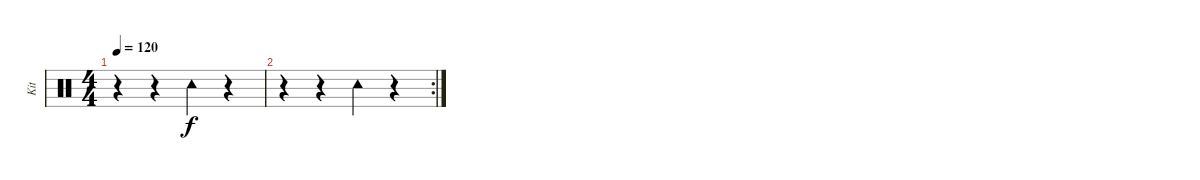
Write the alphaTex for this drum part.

\track ("Kit" "Kit") {instrument percussion}
\staff {score}
\articulation defaults
\ts (4 4)
\tempo 120
\clef neutral
\ks c
r.4{dy f} r.4 "Tambourine (hit)".4 r.4 |
\rc 2
r.4 r.4 "Tambourine (hit)".4 r.4
